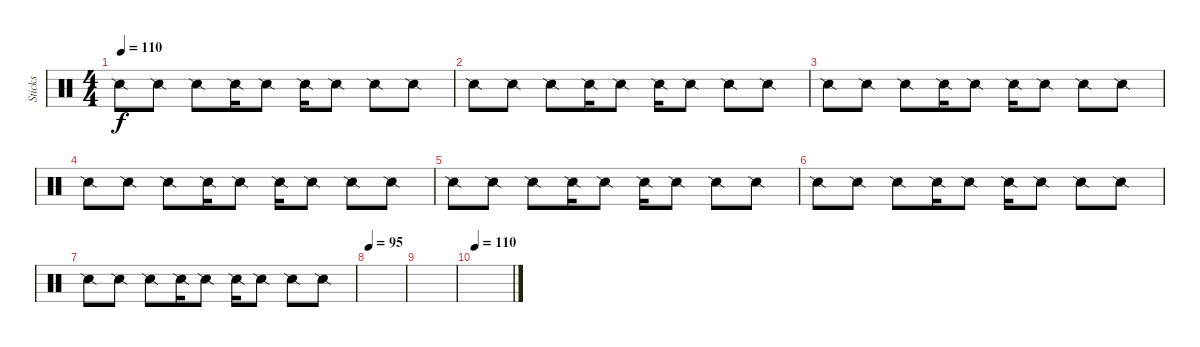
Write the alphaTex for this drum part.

\track ("Sticks" "Sticks") {instrument percussion}
\staff {score}
\articulation defaults
\ts (4 4)
\tempo 110
\clef neutral
\ks c "Snare (side stick) 2".8{dy f} "Snare (side stick) 2".8 "Snare (side stick) 2".8 "Snare (side stick) 2".16 "Snare (side stick) 2".8 "Snare (side stick) 2".16 "Snare (side stick) 2".8 "Snare (side stick) 2".8 "Snare (side stick) 2".8
|
"Snare (side stick) 2".8 "Snare (side stick) 2".8 "Snare (side stick) 2".8 "Snare (side stick) 2".16 "Snare (side stick) 2".8 "Snare (side stick) 2".16 "Snare (side stick) 2".8 "Snare (side stick) 2".8 "Snare (side stick) 2".8 |
"Snare (side stick) 2".8 "Snare (side stick) 2".8 "Snare (side stick) 2".8 "Snare (side stick) 2".16 "Snare (side stick) 2".8 "Snare (side stick) 2".16 "Snare (side stick) 2".8 "Snare (side stick) 2".8 "Snare (side stick) 2".8 |
"Snare (side stick) 2".8 "Snare (side stick) 2".8 "Snare (side stick) 2".8 "Snare (side stick) 2".16 "Snare (side stick) 2".8 "Snare (side stick) 2".16 "Snare (side stick) 2".8 "Snare (side stick) 2".8 "Snare (side stick) 2".8 |
"Snare (side stick) 2".8 "Snare (side stick) 2".8 "Snare (side stick) 2".8 "Snare (side stick) 2".16 "Snare (side stick) 2".8 "Snare (side stick) 2".16 "Snare (side stick) 2".8 "Snare (side stick) 2".8 "Snare (side stick) 2".8 |
"Snare (side stick) 2".8 "Snare (side stick) 2".8 "Snare (side stick) 2".8 "Snare (side stick) 2".16 "Snare (side stick) 2".8 "Snare (side stick) 2".16 "Snare (side stick) 2".8 "Snare (side stick) 2".8 "Snare (side stick) 2".8 |
"Snare (side stick) 2".8 "Snare (side stick) 2".8 "Snare (side stick) 2".8 "Snare (side stick) 2".16 "Snare (side stick) 2".8 "Snare (side stick) 2".16 "Snare (side stick) 2".8 "Snare (side stick) 2".8 "Snare (side stick) 2".8 |
\tempo 95
|
|
\tempo 110
